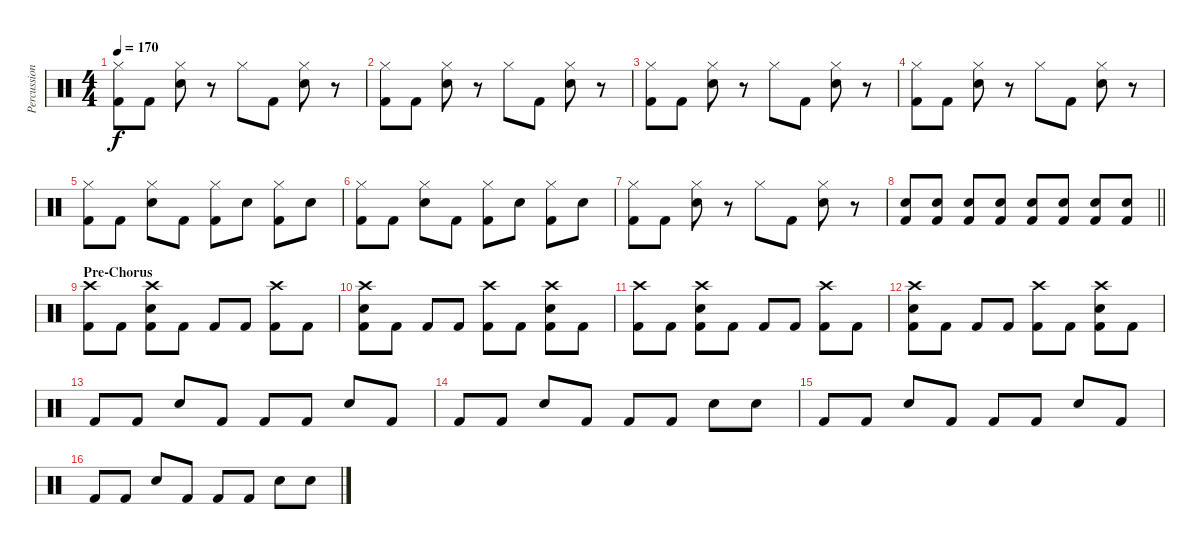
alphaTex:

\track ("Percussion" "Percussion") {instrument percussion}
\staff {score}
\articulation defaults
\ts (4 4)
\tempo 170
\clef neutral
\ks c
("Hi-Hat (closed)" "Kick (hit) 2").8{dy f} "Kick (hit) 2".8 ("Hi-Hat (closed)" "Electric Snare (hit)").8 r.8 "Hi-Hat (closed)".8 "Kick (hit) 2".8 ("Hi-Hat (closed)" "Electric Snare (hit)").8 r.8 |
("Hi-Hat (closed)" "Kick (hit) 2").8 "Kick (hit) 2".8 ("Hi-Hat (closed)" "Electric Snare (hit)").8 r.8 "Hi-Hat (closed)".8 "Kick (hit) 2".8 ("Hi-Hat (closed)" "Electric Snare (hit)").8 r.8 |
("Hi-Hat (closed)" "Kick (hit) 2").8 "Kick (hit) 2".8 ("Hi-Hat (closed)" "Electric Snare (hit)").8 r.8 "Hi-Hat (closed)".8 "Kick (hit) 2".8 ("Hi-Hat (closed)" "Electric Snare (hit)").8 r.8 |
("Hi-Hat (closed)" "Kick (hit) 2").8 "Kick (hit) 2".8 ("Hi-Hat (closed)" "Electric Snare (hit)").8 r.8 "Hi-Hat (closed)".8 "Kick (hit) 2".8 ("Hi-Hat (closed)" "Electric Snare (hit)").8 r.8 |
("Hi-Hat (closed)" "Kick (hit) 2").8 "Kick (hit) 2".8 ("Hi-Hat (closed)" "Electric Snare (hit)").8 "Kick (hit) 2".8 ("Hi-Hat (closed)" "Kick (hit) 2").8 "Electric Snare (hit)".8 ("Hi-Hat (closed)" "Kick (hit) 2").8 "Electric Snare (hit)".8 |
("Hi-Hat (closed)" "Kick (hit) 2").8 "Kick (hit) 2".8 ("Hi-Hat (closed)" "Electric Snare (hit)").8 "Kick (hit) 2".8 ("Hi-Hat (closed)" "Kick (hit) 2").8 "Electric Snare (hit)".8 ("Hi-Hat (closed)" "Kick (hit) 2").8 "Electric Snare (hit)".8 |
("Hi-Hat (closed)" "Kick (hit) 2").8 "Kick (hit) 2".8 ("Hi-Hat (closed)" "Electric Snare (hit)").8 r.8 "Hi-Hat (closed)".8 "Kick (hit) 2".8 ("Hi-Hat (closed)" "Electric Snare (hit)").8 r.8 |
\barLineRight lightlight
("Electric Snare (hit)" "Kick (hit) 2").8{volume 5} ("Electric Snare (hit)" "Kick (hit) 2").8{volume 16} ("Electric Snare (hit)" "Kick (hit) 2").8 ("Electric Snare (hit)" "Kick (hit) 2").8 ("Electric Snare (hit)" "Kick (hit) 2").8 ("Electric Snare (hit)" "Kick (hit) 2").8 ("Electric Snare (hit)" "Kick (hit) 2").8 ("Electric Snare (hit)" "Kick (hit) 2").8 |
\section ("" "Pre-Chorus")
("Crash high (hit)" "Kick (hit) 2").8 "Kick (hit) 2".8 ("Crash high (hit)" "Electric Snare (hit)" "Kick (hit) 2").8 "Kick (hit) 2".8 "Kick (hit) 2".8 "Kick (hit) 2".8 ("Crash high (hit)" "Kick (hit) 2").8 "Kick (hit) 2".8 |
("Crash high (hit)" "Electric Snare (hit)" "Kick (hit) 2").8 "Kick (hit) 2".8 "Kick (hit) 2".8 "Kick (hit) 2".8 ("Crash high (hit)" "Kick (hit) 2").8 "Kick (hit) 2".8 ("Crash high (hit)" "Electric Snare (hit)" "Kick (hit) 2").8 "Kick (hit) 2".8 |
("Crash high (hit)" "Kick (hit) 2").8 "Kick (hit) 2".8 ("Crash high (hit)" "Electric Snare (hit)" "Kick (hit) 2").8 "Kick (hit) 2".8 "Kick (hit) 2".8 "Kick (hit) 2".8 ("Crash high (hit)" "Kick (hit) 2").8 "Kick (hit) 2".8 |
("Crash high (hit)" "Electric Snare (hit)" "Kick (hit) 2").8 "Kick (hit) 2".8 "Kick (hit) 2".8 "Kick (hit) 2".8 ("Crash high (hit)" "Kick (hit) 2").8 "Kick (hit) 2".8 ("Crash high (hit)" "Electric Snare (hit)" "Kick (hit) 2").8 "Kick (hit) 2".8 |
"Kick (hit) 2".8 "Kick (hit) 2".8 "Electric Snare (hit)".8 "Kick (hit) 2".8 "Kick (hit) 2".8 "Kick (hit) 2".8 "Electric Snare (hit)".8 "Kick (hit) 2".8 |
"Kick (hit) 2".8 "Kick (hit) 2".8 "Electric Snare (hit)".8 "Kick (hit) 2".8 "Kick (hit) 2".8 "Kick (hit) 2".8 "Electric Snare (hit)".8 "Electric Snare (hit)".8 |
"Kick (hit) 2".8 "Kick (hit) 2".8 "Electric Snare (hit)".8 "Kick (hit) 2".8 "Kick (hit) 2".8 "Kick (hit) 2".8 "Electric Snare (hit)".8 "Kick (hit) 2".8 |
"Kick (hit) 2".8 "Kick (hit) 2".8 "Electric Snare (hit)".8 "Kick (hit) 2".8 "Kick (hit) 2".8 "Kick (hit) 2".8 "Electric Snare (hit)".8 "Electric Snare (hit)".8
